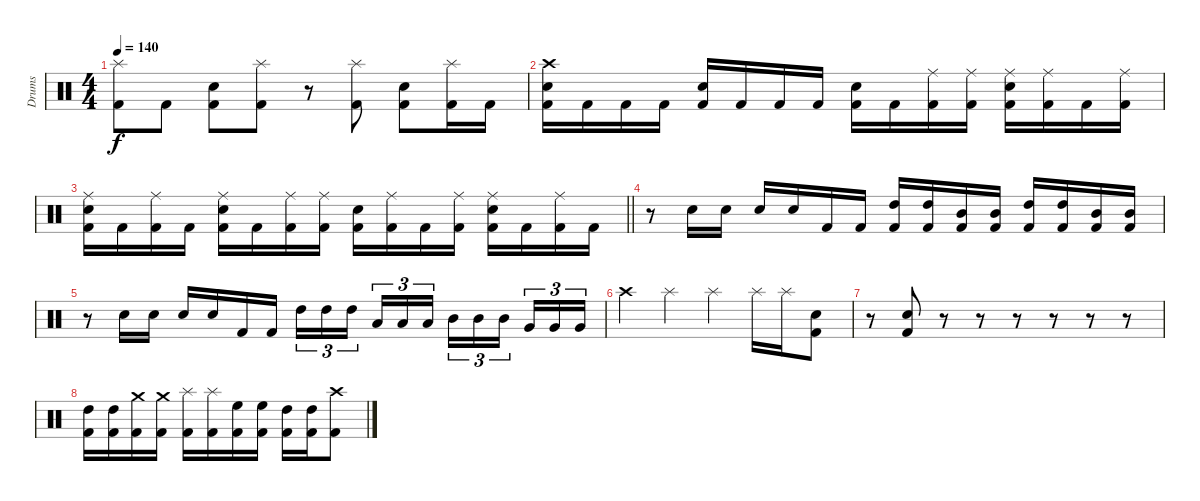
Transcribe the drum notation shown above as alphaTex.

\track ("Drums" "Drums") {instrument percussion}
\staff {score}
\articulation defaults
\ts (4 4)
\tempo 140
\clef neutral
\ks c
("Splash (hit)" "Kick (hit) 2").8{dy f} "Kick (hit) 2".8 ("Snare (hit) 2" "Kick (hit) 2").8 ("Splash (hit)" "Kick (hit) 2").8 r.8 ("Splash (hit)" "Kick (hit) 2").8 ("Snare (hit) 2" "Kick (hit) 2").8 ("Splash (hit)" "Kick (hit) 2").16 "Kick (hit) 2".16 |
("Crash high (hit)" "Snare (hit) 2" "Kick (hit) 2").16 "Kick (hit) 2".16 "Kick (hit) 2".16 "Kick (hit) 2".16 ("Snare (hit) 2" "Kick (hit) 2").16 "Kick (hit) 2".16 "Kick (hit) 2".16 "Kick (hit) 2".16 ("Snare (hit) 2" "Kick (hit) 2").16 "Kick (hit) 2".16 ("Ride (middle)" "Kick (hit) 2").16 ("Ride (middle)" "Kick (hit) 2").16 ("Ride (middle)" "Snare (hit) 2" "Kick (hit) 2").16 ("Ride (middle)" "Kick (hit) 2").16 "Kick (hit) 2".16 ("Ride (middle)" "Kick (hit) 2").16 |
\barLineRight lightlight
("Ride (middle)" "Snare (hit) 2" "Kick (hit) 2").16 "Kick (hit) 2".16 ("Ride (middle)" "Kick (hit) 2").16 "Kick (hit) 2".16 ("Ride (middle)" "Snare (hit) 2" "Kick (hit) 2").16 "Kick (hit) 2".16 ("Ride (middle)" "Kick (hit) 2").16 ("Ride (middle)" "Kick (hit) 2").16 ("Snare (hit) 2" "Kick (hit) 2").16 ("Ride (middle)" "Kick (hit) 2").16 "Kick (hit) 2".16 ("Ride (middle)" "Kick (hit) 2").16 ("Ride (middle)" "Snare (hit) 2" "Kick (hit) 2").16 "Kick (hit) 2".16 ("Ride (middle)" "Kick (hit) 2").16 "Kick (hit) 2".16 |
r.8 "Snare (hit) 2".16 "Snare (hit) 2".16 "Snare (hit) 2".16 "Snare (hit) 2".16 "Kick (hit) 2".16 "Kick (hit) 2".16 ("High Tom (hit)" "Kick (hit) 2").16 ("High Tom (hit)" "Kick (hit) 2").16 ("Mid Tom (hit)" "Kick (hit) 2").16 ("Mid Tom (hit)" "Kick (hit) 2").16 ("High Tom (hit)" "Kick (hit) 2").16 ("High Tom (hit)" "Kick (hit) 2").16 ("Mid Tom (hit)" "Kick (hit) 2").16 ("Mid Tom (hit)" "Kick (hit) 2").16 |
r.8 "Snare (hit) 2".16 "Snare (hit) 2".16 "Snare (hit) 2".16 "Snare (hit) 2".16 "Kick (hit) 2".16 "Kick (hit) 2".16 "High Tom (hit)".16{tu (3 2)} "High Tom (hit)".16{tu (3 2)} "High Tom (hit)".16{tu (3 2)} "Low Tom (hit)".16{tu (3 2)} "Low Tom (hit)".16{tu (3 2)} "Low Tom (hit)".16{tu (3 2)} "Mid Tom (hit)".16{tu (3 2)} "Mid Tom (hit)".16{tu (3 2)} "Mid Tom (hit)".16{tu (3 2)} "Very Low Tom (hit)".16{tu (3 2)} "Very Low Tom (hit)".16{tu (3 2)} "Very Low Tom (hit)".16{tu (3 2)} |
"Crash high (hit)".4 "Splash (hit)".4 "Splash (hit)".4 "Splash (hit)".16 "Splash (hit)".16 ("Snare (hit) 2" "Kick (hit) 2").8 |
r.8 ("Snare (hit) 2" "Kick (hit) 2").8 r.8 r.8 r.8 r.8 r.8 r.8 |
("High Tom (hit)" "Kick (hit) 2").16 ("High Tom (hit)" "Kick (hit) 2").16 ("Crash medium (hit)" "Kick (hit) 2").16 ("Crash medium (hit)" "Kick (hit) 2").16 ("Splash (hit)" "Kick (hit) 2").16 ("Splash (hit)" "Kick (hit) 2").16 ("High Floor Tom (hit)" "Kick (hit) 2").16 ("High Floor Tom (hit)" "Kick (hit) 2").16 ("High Tom (hit)" "Kick (hit) 2").16 ("High Tom (hit)" "Kick (hit) 2").16 ("Crash high (hit)" "Kick (hit) 2").8
